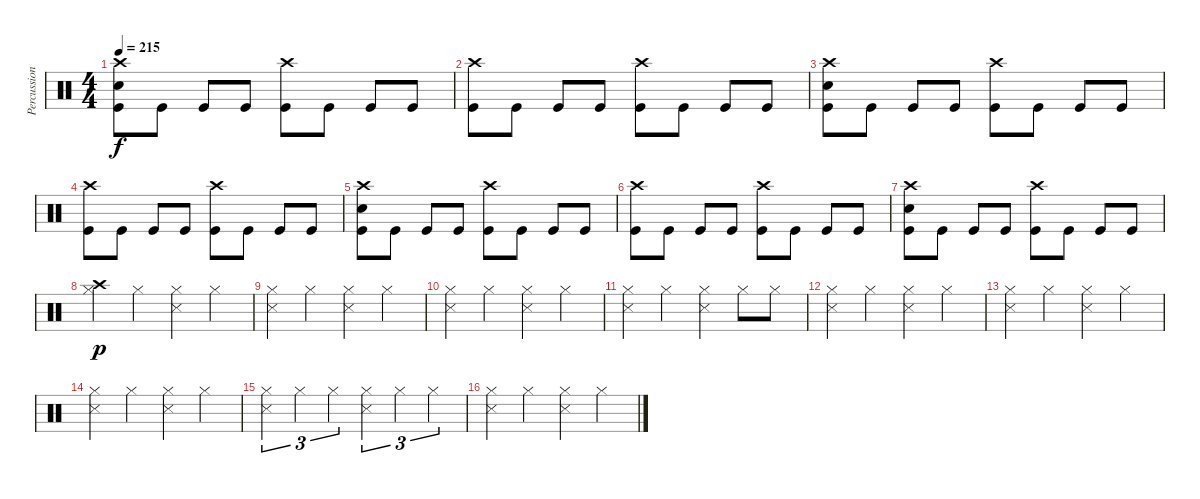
\track ("Percussion" "Percussion") {instrument percussion}
\staff {score}
\articulation defaults
\ts (4 4)
\tempo 215
\clef neutral
\ks c
("Crash high (hit)" "Electric Snare (hit)" "Kick (hit)").8{dy f} "Kick (hit)".8 "Kick (hit)".8 "Kick (hit)".8 ("Crash high (hit)" "Kick (hit)").8 "Kick (hit)".8 "Kick (hit)".8 "Kick (hit)".8 |
("Crash high (hit)" "Kick (hit)").8 "Kick (hit)".8 "Kick (hit)".8 "Kick (hit)".8 ("Crash high (hit)" "Kick (hit)").8 "Kick (hit)".8 "Kick (hit)".8 "Kick (hit)".8 |
("Crash high (hit)" "Electric Snare (hit)" "Kick (hit)").8 "Kick (hit)".8 "Kick (hit)".8 "Kick (hit)".8 ("Crash high (hit)" "Kick (hit)").8 "Kick (hit)".8 "Kick (hit)".8 "Kick (hit)".8 |
("Crash high (hit)" "Kick (hit)").8 "Kick (hit)".8 "Kick (hit)".8 "Kick (hit)".8 ("Crash high (hit)" "Kick (hit)").8 "Kick (hit)".8 "Kick (hit)".8 "Kick (hit)".8 |
("Crash high (hit)" "Electric Snare (hit)" "Kick (hit)").8 "Kick (hit)".8 "Kick (hit)".8 "Kick (hit)".8 ("Crash high (hit)" "Kick (hit)").8 "Kick (hit)".8 "Kick (hit)".8 "Kick (hit)".8 |
("Crash high (hit)" "Kick (hit)").8 "Kick (hit)".8 "Kick (hit)".8 "Kick (hit)".8 ("Crash high (hit)" "Kick (hit)").8 "Kick (hit)".8 "Kick (hit)".8 "Kick (hit)".8 |
("Crash high (hit)" "Electric Snare (hit)" "Kick (hit)").8 "Kick (hit)".8 "Kick (hit)".8 "Kick (hit)".8 ("Crash high (hit)" "Kick (hit)").8 "Kick (hit)".8 "Kick (hit)".8 "Kick (hit)".8 |
("Crash high (hit)" "Hi-Hat (closed)").4{dy p volume 11} "Hi-Hat (closed)".4 ("Hi-Hat (closed)" "Snare (side stick) 3").4 "Hi-Hat (closed)".4 |
("Hi-Hat (closed)" "Snare (side stick) 3").4 "Hi-Hat (closed)".4 ("Hi-Hat (closed)" "Snare (side stick) 3").4 "Hi-Hat (closed)".4 |
("Hi-Hat (closed)" "Snare (side stick) 3").4 "Hi-Hat (closed)".4 ("Hi-Hat (closed)" "Snare (side stick) 3").4 "Hi-Hat (closed)".4 |
("Hi-Hat (closed)" "Snare (side stick) 3").4 "Hi-Hat (closed)".4 ("Hi-Hat (closed)" "Snare (side stick) 3").4 "Hi-Hat (closed)".8 "Hi-Hat (closed)".8 |
("Hi-Hat (closed)" "Snare (side stick) 3").4 "Hi-Hat (closed)".4 ("Hi-Hat (closed)" "Snare (side stick) 3").4 "Hi-Hat (closed)".4 |
("Hi-Hat (closed)" "Snare (side stick) 3").4 "Hi-Hat (closed)".4 ("Hi-Hat (closed)" "Snare (side stick) 3").4 "Hi-Hat (closed)".4 |
("Hi-Hat (closed)" "Snare (side stick) 3").4 "Hi-Hat (closed)".4 ("Hi-Hat (closed)" "Snare (side stick) 3").4 "Hi-Hat (closed)".4 |
("Hi-Hat (closed)" "Snare (side stick) 3").4{tu (3 2)} "Hi-Hat (closed)".4{tu (3 2)} "Hi-Hat (closed)".4{tu (3 2)} ("Hi-Hat (closed)" "Snare (side stick) 3").4{tu (3 2)} "Hi-Hat (closed)".4{tu (3 2)} "Hi-Hat (closed)".4{tu (3 2)} |
("Hi-Hat (closed)" "Snare (side stick) 3").4 "Hi-Hat (closed)".4 ("Hi-Hat (closed)" "Snare (side stick) 3").4 "Hi-Hat (closed)".4
